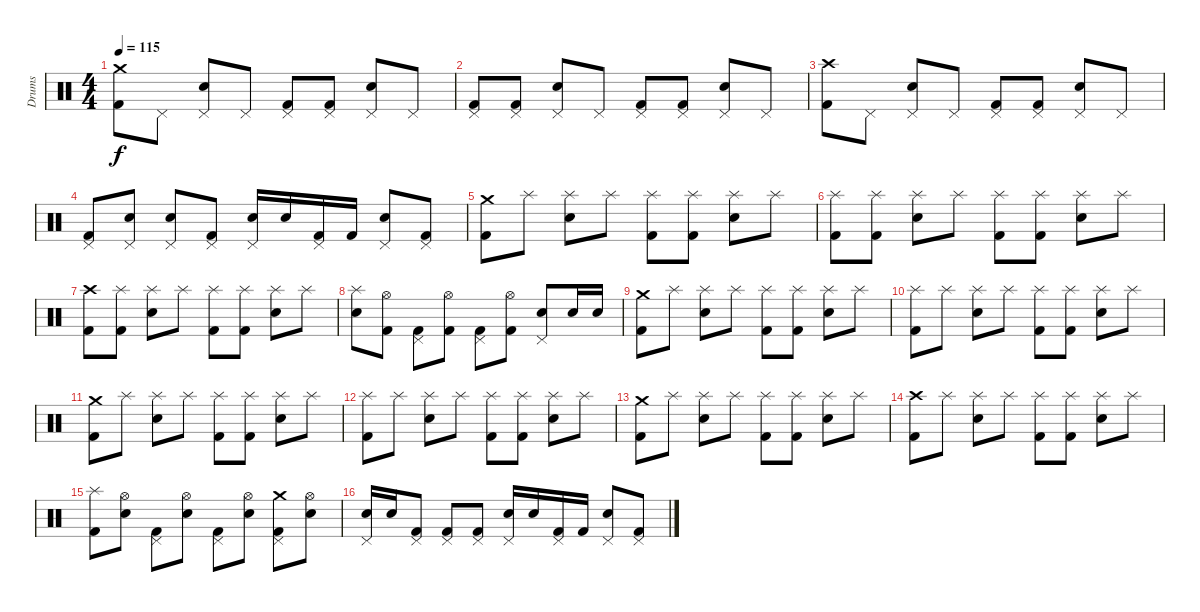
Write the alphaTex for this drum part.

\track ("Drums" "Drums") {instrument percussion}
\staff {score}
\articulation defaults
\ts (4 4)
\tempo 115
\clef neutral
\ks c
("Kick (hit) 2" "Crash medium (hit)").8{dy f} "Pedal Hi-Hat (hit)".8 ("Pedal Hi-Hat (hit)" "Snare (hit) 2").8 "Pedal Hi-Hat (hit)".8 ("Pedal Hi-Hat (hit)" "Kick (hit) 2").8 ("Pedal Hi-Hat (hit)" "Kick (hit) 2").8 ("Pedal Hi-Hat (hit)" "Snare (hit) 2").8 "Pedal Hi-Hat (hit)".8 |
("Pedal Hi-Hat (hit)" "Kick (hit) 2").8 ("Pedal Hi-Hat (hit)" "Kick (hit) 2").8 ("Pedal Hi-Hat (hit)" "Snare (hit) 2").8 "Pedal Hi-Hat (hit)".8 ("Pedal Hi-Hat (hit)" "Kick (hit) 2").8 ("Pedal Hi-Hat (hit)" "Kick (hit) 2").8 ("Pedal Hi-Hat (hit)" "Snare (hit) 2").8 "Pedal Hi-Hat (hit)".8 |
("Kick (hit) 2" "Crash high (hit)").8 "Pedal Hi-Hat (hit)".8 ("Pedal Hi-Hat (hit)" "Snare (hit) 2").8 "Pedal Hi-Hat (hit)".8 ("Pedal Hi-Hat (hit)" "Kick (hit) 2").8 ("Pedal Hi-Hat (hit)" "Kick (hit) 2").8 ("Pedal Hi-Hat (hit)" "Snare (hit) 2").8 "Pedal Hi-Hat (hit)".8 |
("Pedal Hi-Hat (hit)" "Kick (hit) 2").8 ("Pedal Hi-Hat (hit)" "Snare (hit) 2").8 ("Pedal Hi-Hat (hit)" "Snare (hit) 2").8 ("Pedal Hi-Hat (hit)" "Kick (hit) 2").8 ("Pedal Hi-Hat (hit)" "Snare (hit) 2").16 "Snare (hit) 2".16 ("Pedal Hi-Hat (hit)" "Kick (hit) 2").16 "Kick (hit) 2".16 ("Pedal Hi-Hat (hit)" "Snare (hit) 2").8 ("Pedal Hi-Hat (hit)" "Kick (hit) 2").8 |
("Kick (hit) 2" "Crash medium (hit)").8 "Splash (hit)".8 ("Splash (hit)" "Snare (hit) 2").8 "Splash (hit)".8 ("Splash (hit)" "Kick (hit) 2").8 ("Splash (hit)" "Kick (hit) 2").8 ("Splash (hit)" "Snare (hit) 2").8 "Splash (hit)".8 |
("Splash (hit)" "Kick (hit) 2").8 ("Splash (hit)" "Kick (hit) 2").8 ("Splash (hit)" "Snare (hit) 2").8 "Splash (hit)".8 ("Splash (hit)" "Kick (hit) 2").8 ("Splash (hit)" "Kick (hit) 2").8 ("Splash (hit)" "Snare (hit) 2").8 "Splash (hit)".8 |
("Kick (hit) 2" "Crash high (hit)").8 ("Splash (hit)" "Kick (hit) 2").8 ("Splash (hit)" "Snare (hit) 2").8 "Splash (hit)".8 ("Splash (hit)" "Kick (hit) 2").8 ("Splash (hit)" "Kick (hit) 2").8 ("Splash (hit)" "Snare (hit) 2").8 "Splash (hit)".8 |
("Splash (hit)" "Snare (hit) 2").8 ("Kick (hit) 2" "Hi-Hat (open)").8 ("Kick (hit) 2" "Pedal Hi-Hat (hit)").8 ("Kick (hit) 2" "Hi-Hat (open)").8 ("Kick (hit) 2" "Pedal Hi-Hat (hit)").8 ("Kick (hit) 2" "Hi-Hat (open)").8 ("Snare (hit) 2" "Pedal Hi-Hat (hit)").8 "Snare (hit) 2".16 "Snare (hit) 2".16 |
("Crash medium (hit)" "Kick (hit) 2").8 "Splash (hit)".8 ("Splash (hit)" "Snare (hit) 2").8 "Splash (hit)".8 ("Splash (hit)" "Kick (hit) 2").8 ("Splash (hit)" "Kick (hit) 2").8 ("Splash (hit)" "Snare (hit) 2").8 "Splash (hit)".8 |
("Splash (hit)" "Kick (hit) 2").8 "Splash (hit)".8 ("Splash (hit)" "Snare (hit) 2").8 "Splash (hit)".8 ("Splash (hit)" "Kick (hit) 2").8 ("Splash (hit)" "Kick (hit) 2").8 ("Splash (hit)" "Snare (hit) 2").8 "Splash (hit)".8 |
("Kick (hit) 2" "Crash medium (hit)").8 "Splash (hit)".8 ("Splash (hit)" "Snare (hit) 2").8 "Splash (hit)".8 ("Splash (hit)" "Kick (hit) 2").8 ("Splash (hit)" "Kick (hit) 2").8 ("Splash (hit)" "Snare (hit) 2").8 "Splash (hit)".8 |
("Splash (hit)" "Kick (hit) 2").8 "Splash (hit)".8 ("Splash (hit)" "Snare (hit) 2").8 "Splash (hit)".8 ("Splash (hit)" "Kick (hit) 2").8 ("Splash (hit)" "Kick (hit) 2").8 ("Splash (hit)" "Snare (hit) 2").8 "Splash (hit)".8 |
("Kick (hit) 2" "Crash medium (hit)").8 "Splash (hit)".8 ("Snare (hit) 2" "Splash (hit)").8 "Splash (hit)".8 ("Splash (hit)" "Kick (hit) 2").8 ("Splash (hit)" "Kick (hit) 2").8 ("Snare (hit) 2" "Splash (hit)").8 "Splash (hit)".8 |
("Kick (hit) 2" "Crash high (hit)").8 "Splash (hit)".8 ("Snare (hit) 2" "Splash (hit)").8 "Splash (hit)".8 ("Splash (hit)" "Kick (hit) 2").8 ("Splash (hit)" "Kick (hit) 2").8 ("Snare (hit) 2" "Splash (hit)").8 "Splash (hit)".8 |
("Splash (hit)" "Kick (hit) 2").8 ("Snare (hit) 2" "Hi-Hat (open)").8 ("Kick (hit) 2" "Pedal Hi-Hat (hit)").8 ("Snare (hit) 2" "Hi-Hat (open)").8 ("Kick (hit) 2" "Pedal Hi-Hat (hit)").8 ("Snare (hit) 2" "Hi-Hat (open)").8 ("Crash medium (hit)" "Kick (hit) 2" "Pedal Hi-Hat (hit)").8 ("Snare (hit) 2" "Hi-Hat (open)").8 |
("Pedal Hi-Hat (hit)" "Snare (hit) 2").16 "Snare (hit) 2".16 ("Pedal Hi-Hat (hit)" "Kick (hit) 2").8 ("Pedal Hi-Hat (hit)" "Kick (hit) 2").8 ("Pedal Hi-Hat (hit)" "Kick (hit) 2").8 ("Pedal Hi-Hat (hit)" "Snare (hit) 2").16 "Snare (hit) 2".16 ("Pedal Hi-Hat (hit)" "Kick (hit) 2").16 "Kick (hit) 2".16 ("Pedal Hi-Hat (hit)" "Snare (hit) 2").8 ("Pedal Hi-Hat (hit)" "Kick (hit) 2").8
